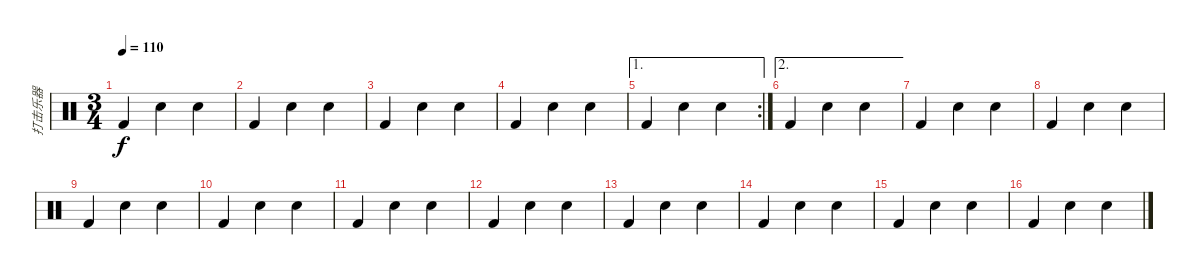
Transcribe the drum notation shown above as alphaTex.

\track ("打击乐器" "打击乐器") {instrument percussion}
\staff {score}
\articulation defaults
\ts (3 4)
\tempo 110
\clef neutral
\ks c "Kick (hit) 2".4{dy f} "Snare (hit) 2".4 "Snare (hit) 2".4
|
"Kick (hit) 2".4 "Snare (hit) 2".4 "Snare (hit) 2".4 |
"Kick (hit) 2".4 "Snare (hit) 2".4 "Snare (hit) 2".4 |
"Kick (hit) 2".4 "Snare (hit) 2".4 "Snare (hit) 2".4 |
\ae 1
\rc 2 "Kick (hit) 2".4 "Snare (hit) 2".4 "Snare (hit) 2".4
|
\ae 2 "Kick (hit) 2".4 "Snare (hit) 2".4 "Snare (hit) 2".4
|
"Kick (hit) 2".4 "Snare (hit) 2".4 "Snare (hit) 2".4 |
"Kick (hit) 2".4 "Snare (hit) 2".4 "Snare (hit) 2".4 |
"Kick (hit) 2".4 "Snare (hit) 2".4 "Snare (hit) 2".4 |
"Kick (hit) 2".4 "Snare (hit) 2".4 "Snare (hit) 2".4 |
"Kick (hit) 2".4 "Snare (hit) 2".4 "Snare (hit) 2".4 |
"Kick (hit) 2".4 "Snare (hit) 2".4 "Snare (hit) 2".4 |
"Kick (hit) 2".4 "Snare (hit) 2".4 "Snare (hit) 2".4 |
"Kick (hit) 2".4 "Snare (hit) 2".4 "Snare (hit) 2".4 |
"Kick (hit) 2".4 "Snare (hit) 2".4 "Snare (hit) 2".4 |
"Kick (hit) 2".4 "Snare (hit) 2".4 "Snare (hit) 2".4
